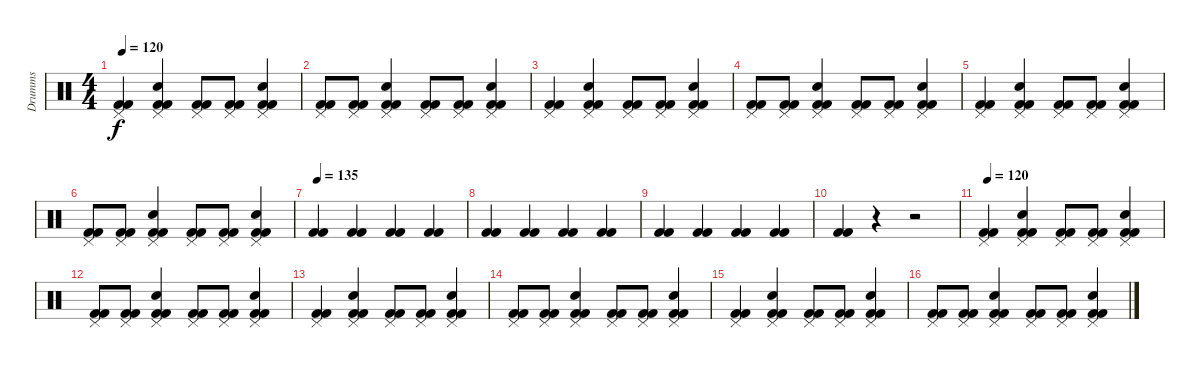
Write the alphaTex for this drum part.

\track ("Drumms" "Drumms") {instrument percussion}
\staff {score}
\articulation defaults
\ts (4 4)
\tempo 120
\clef neutral
\ks c
("Kick (hit) 2" "Kick (hit) 2" "Pedal Hi-Hat (hit)").4{dy f} ("Kick (hit) 2" "Kick (hit) 2" "Pedal Hi-Hat (hit)" "Electric Snare (hit)").4 ("Kick (hit) 2" "Kick (hit) 2" "Pedal Hi-Hat (hit)").8 ("Kick (hit) 2" "Kick (hit) 2" "Pedal Hi-Hat (hit)").8 ("Kick (hit) 2" "Kick (hit) 2" "Pedal Hi-Hat (hit)" "Electric Snare (hit)").4 |
("Kick (hit) 2" "Kick (hit) 2" "Pedal Hi-Hat (hit)").8 ("Kick (hit) 2" "Kick (hit) 2" "Pedal Hi-Hat (hit)").8 ("Kick (hit) 2" "Kick (hit) 2" "Pedal Hi-Hat (hit)" "Electric Snare (hit)").4 ("Kick (hit) 2" "Kick (hit) 2" "Pedal Hi-Hat (hit)").8 ("Kick (hit) 2" "Kick (hit) 2" "Pedal Hi-Hat (hit)").8 ("Kick (hit) 2" "Kick (hit) 2" "Pedal Hi-Hat (hit)" "Electric Snare (hit)").4 |
("Kick (hit) 2" "Kick (hit) 2" "Pedal Hi-Hat (hit)").4 ("Kick (hit) 2" "Kick (hit) 2" "Pedal Hi-Hat (hit)" "Electric Snare (hit)").4 ("Kick (hit) 2" "Kick (hit) 2" "Pedal Hi-Hat (hit)").8 ("Kick (hit) 2" "Kick (hit) 2" "Pedal Hi-Hat (hit)").8 ("Kick (hit) 2" "Kick (hit) 2" "Pedal Hi-Hat (hit)" "Electric Snare (hit)").4 |
("Kick (hit) 2" "Kick (hit) 2" "Pedal Hi-Hat (hit)").8 ("Kick (hit) 2" "Kick (hit) 2" "Pedal Hi-Hat (hit)").8 ("Kick (hit) 2" "Kick (hit) 2" "Pedal Hi-Hat (hit)" "Electric Snare (hit)").4 ("Kick (hit) 2" "Kick (hit) 2" "Pedal Hi-Hat (hit)").8 ("Kick (hit) 2" "Kick (hit) 2" "Pedal Hi-Hat (hit)").8 ("Kick (hit) 2" "Kick (hit) 2" "Pedal Hi-Hat (hit)" "Electric Snare (hit)").4 |
("Kick (hit) 2" "Kick (hit) 2" "Pedal Hi-Hat (hit)").4 ("Kick (hit) 2" "Kick (hit) 2" "Pedal Hi-Hat (hit)" "Electric Snare (hit)").4 ("Kick (hit) 2" "Kick (hit) 2" "Pedal Hi-Hat (hit)").8 ("Kick (hit) 2" "Kick (hit) 2" "Pedal Hi-Hat (hit)").8 ("Kick (hit) 2" "Kick (hit) 2" "Pedal Hi-Hat (hit)" "Electric Snare (hit)").4 |
("Kick (hit) 2" "Kick (hit) 2" "Pedal Hi-Hat (hit)").8 ("Kick (hit) 2" "Kick (hit) 2" "Pedal Hi-Hat (hit)").8 ("Kick (hit) 2" "Kick (hit) 2" "Pedal Hi-Hat (hit)" "Electric Snare (hit)").4 ("Kick (hit) 2" "Kick (hit) 2" "Pedal Hi-Hat (hit)").8 ("Kick (hit) 2" "Kick (hit) 2" "Pedal Hi-Hat (hit)").8 ("Kick (hit) 2" "Kick (hit) 2" "Pedal Hi-Hat (hit)" "Electric Snare (hit)").4 |
\tempo 135
("Kick (hit) 2" "Kick (hit) 2").4 ("Kick (hit) 2" "Kick (hit) 2").4 ("Kick (hit) 2" "Kick (hit) 2").4 ("Kick (hit) 2" "Kick (hit) 2").4 |
("Kick (hit) 2" "Kick (hit) 2").4 ("Kick (hit) 2" "Kick (hit) 2").4 ("Kick (hit) 2" "Kick (hit) 2").4 ("Kick (hit) 2" "Kick (hit) 2").4 |
("Kick (hit) 2" "Kick (hit) 2").4 ("Kick (hit) 2" "Kick (hit) 2").4 ("Kick (hit) 2" "Kick (hit) 2").4 ("Kick (hit) 2" "Kick (hit) 2").4 |
("Kick (hit) 2" "Kick (hit) 2").4 r.4 r.2 |
\tempo 120
("Kick (hit) 2" "Kick (hit) 2" "Pedal Hi-Hat (hit)").4 ("Kick (hit) 2" "Kick (hit) 2" "Pedal Hi-Hat (hit)" "Electric Snare (hit)").4 ("Kick (hit) 2" "Kick (hit) 2" "Pedal Hi-Hat (hit)").8 ("Kick (hit) 2" "Kick (hit) 2" "Pedal Hi-Hat (hit)").8 ("Kick (hit) 2" "Kick (hit) 2" "Pedal Hi-Hat (hit)" "Electric Snare (hit)").4 |
("Kick (hit) 2" "Kick (hit) 2" "Pedal Hi-Hat (hit)").8 ("Kick (hit) 2" "Kick (hit) 2" "Pedal Hi-Hat (hit)").8 ("Kick (hit) 2" "Kick (hit) 2" "Pedal Hi-Hat (hit)" "Electric Snare (hit)").4 ("Kick (hit) 2" "Kick (hit) 2" "Pedal Hi-Hat (hit)").8 ("Kick (hit) 2" "Kick (hit) 2" "Pedal Hi-Hat (hit)").8 ("Kick (hit) 2" "Kick (hit) 2" "Pedal Hi-Hat (hit)" "Electric Snare (hit)").4 |
("Kick (hit) 2" "Kick (hit) 2" "Pedal Hi-Hat (hit)").4 ("Kick (hit) 2" "Kick (hit) 2" "Pedal Hi-Hat (hit)" "Electric Snare (hit)").4 ("Kick (hit) 2" "Kick (hit) 2" "Pedal Hi-Hat (hit)").8 ("Kick (hit) 2" "Kick (hit) 2" "Pedal Hi-Hat (hit)").8 ("Kick (hit) 2" "Kick (hit) 2" "Pedal Hi-Hat (hit)" "Electric Snare (hit)").4 |
("Kick (hit) 2" "Kick (hit) 2" "Pedal Hi-Hat (hit)").8 ("Kick (hit) 2" "Kick (hit) 2" "Pedal Hi-Hat (hit)").8 ("Kick (hit) 2" "Kick (hit) 2" "Pedal Hi-Hat (hit)" "Electric Snare (hit)").4 ("Kick (hit) 2" "Kick (hit) 2" "Pedal Hi-Hat (hit)").8 ("Kick (hit) 2" "Kick (hit) 2" "Pedal Hi-Hat (hit)").8 ("Kick (hit) 2" "Kick (hit) 2" "Pedal Hi-Hat (hit)" "Electric Snare (hit)").4 |
("Kick (hit) 2" "Kick (hit) 2" "Pedal Hi-Hat (hit)").4 ("Kick (hit) 2" "Kick (hit) 2" "Pedal Hi-Hat (hit)" "Electric Snare (hit)").4 ("Kick (hit) 2" "Kick (hit) 2" "Pedal Hi-Hat (hit)").8 ("Kick (hit) 2" "Kick (hit) 2" "Pedal Hi-Hat (hit)").8 ("Kick (hit) 2" "Kick (hit) 2" "Pedal Hi-Hat (hit)" "Electric Snare (hit)").4 |
("Kick (hit) 2" "Kick (hit) 2" "Pedal Hi-Hat (hit)").8 ("Kick (hit) 2" "Kick (hit) 2" "Pedal Hi-Hat (hit)").8 ("Kick (hit) 2" "Kick (hit) 2" "Pedal Hi-Hat (hit)" "Electric Snare (hit)").4 ("Kick (hit) 2" "Kick (hit) 2" "Pedal Hi-Hat (hit)").8 ("Kick (hit) 2" "Kick (hit) 2" "Pedal Hi-Hat (hit)").8 ("Kick (hit) 2" "Kick (hit) 2" "Pedal Hi-Hat (hit)" "Electric Snare (hit)").4
